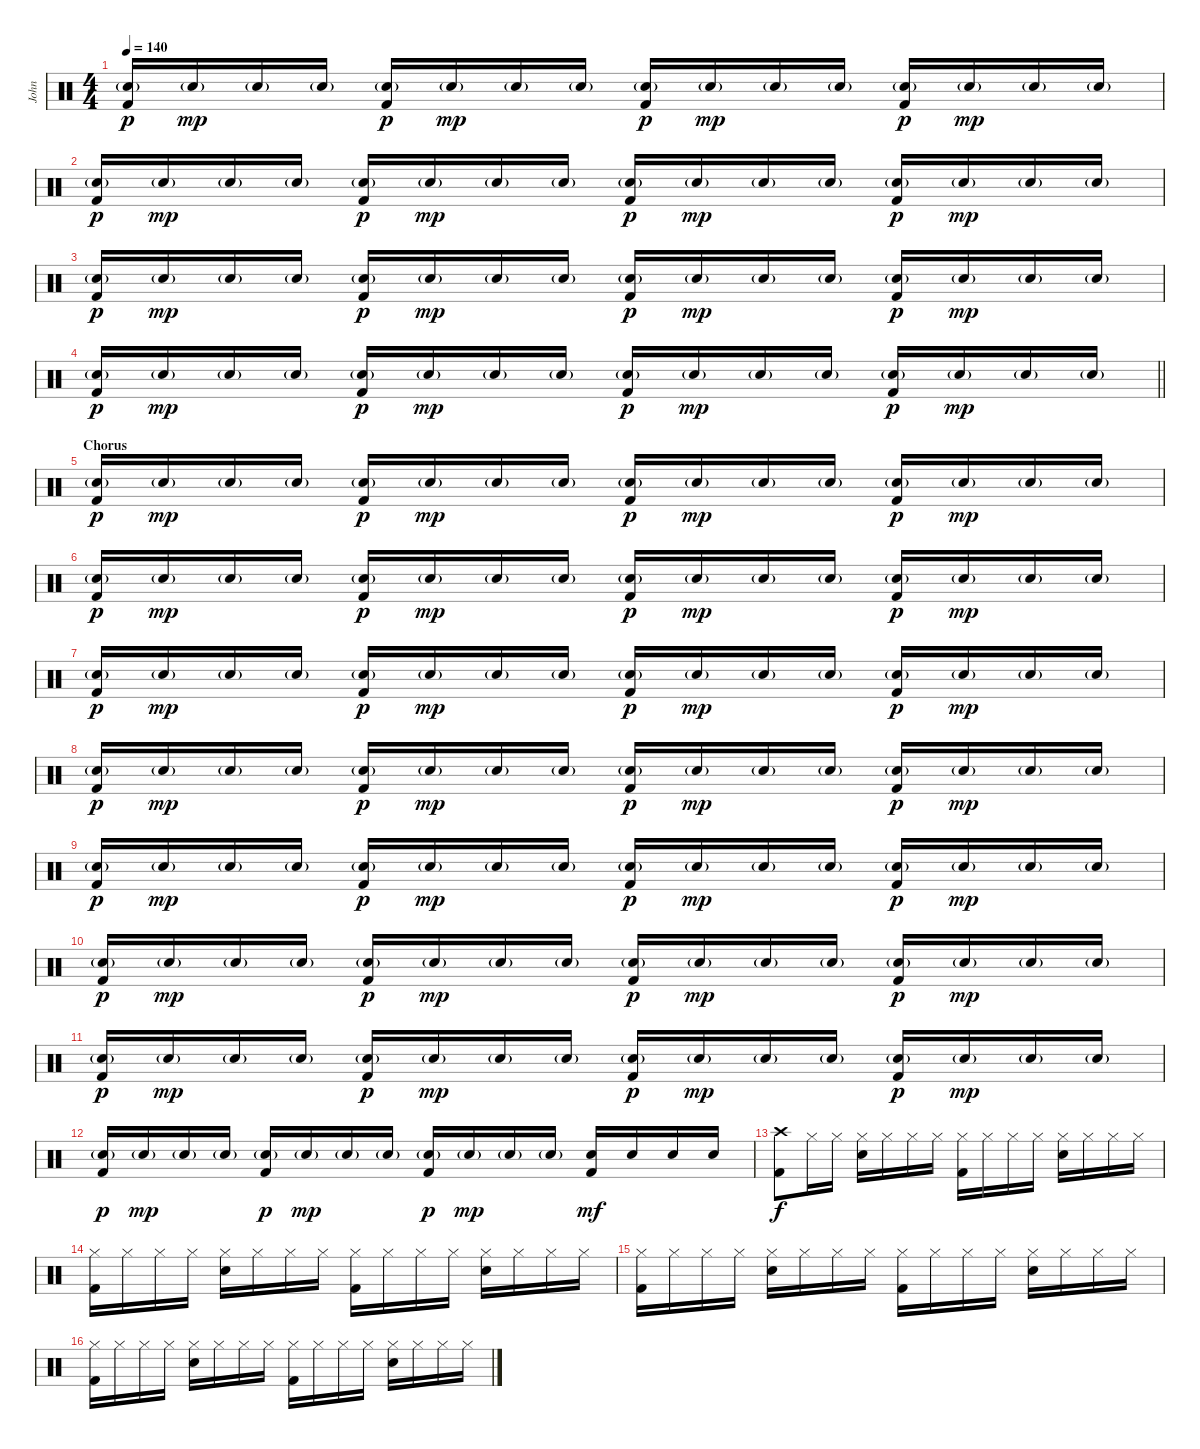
\track ("John" "John") {instrument percussion}
\staff {score}
\articulation defaults
\ts (4 4)
\tempo 140
\clef neutral
\ks c
("Electric Snare (hit)"{g} "Kick (hit) 2").16{dy p} "Electric Snare (hit)"{g}.16{dy mp} "Electric Snare (hit)"{g}.16 "Electric Snare (hit)"{g}.16 ("Electric Snare (hit)"{g} "Kick (hit) 2").16{dy p} "Electric Snare (hit)"{g}.16{dy mp} "Electric Snare (hit)"{g}.16 "Electric Snare (hit)"{g}.16 ("Electric Snare (hit)"{g} "Kick (hit) 2").16{dy p} "Electric Snare (hit)"{g}.16{dy mp} "Electric Snare (hit)"{g}.16 "Electric Snare (hit)"{g}.16 ("Electric Snare (hit)"{g} "Kick (hit) 2").16{dy p} "Electric Snare (hit)"{g}.16{dy mp} "Electric Snare (hit)"{g}.16 "Electric Snare (hit)"{g}.16 |
("Electric Snare (hit)"{g} "Kick (hit) 2").16{dy p} "Electric Snare (hit)"{g}.16{dy mp} "Electric Snare (hit)"{g}.16 "Electric Snare (hit)"{g}.16 ("Electric Snare (hit)"{g} "Kick (hit) 2").16{dy p} "Electric Snare (hit)"{g}.16{dy mp} "Electric Snare (hit)"{g}.16 "Electric Snare (hit)"{g}.16 ("Electric Snare (hit)"{g} "Kick (hit) 2").16{dy p} "Electric Snare (hit)"{g}.16{dy mp} "Electric Snare (hit)"{g}.16 "Electric Snare (hit)"{g}.16 ("Electric Snare (hit)"{g} "Kick (hit) 2").16{dy p} "Electric Snare (hit)"{g}.16{dy mp} "Electric Snare (hit)"{g}.16 "Electric Snare (hit)"{g}.16 |
("Electric Snare (hit)"{g} "Kick (hit) 2").16{dy p} "Electric Snare (hit)"{g}.16{dy mp} "Electric Snare (hit)"{g}.16 "Electric Snare (hit)"{g}.16 ("Electric Snare (hit)"{g} "Kick (hit) 2").16{dy p} "Electric Snare (hit)"{g}.16{dy mp} "Electric Snare (hit)"{g}.16 "Electric Snare (hit)"{g}.16 ("Electric Snare (hit)"{g} "Kick (hit) 2").16{dy p} "Electric Snare (hit)"{g}.16{dy mp} "Electric Snare (hit)"{g}.16 "Electric Snare (hit)"{g}.16 ("Electric Snare (hit)"{g} "Kick (hit) 2").16{dy p} "Electric Snare (hit)"{g}.16{dy mp} "Electric Snare (hit)"{g}.16 "Electric Snare (hit)"{g}.16 |
\barLineRight lightlight
("Electric Snare (hit)"{g} "Kick (hit) 2").16{dy p} "Electric Snare (hit)"{g}.16{dy mp} "Electric Snare (hit)"{g}.16 "Electric Snare (hit)"{g}.16 ("Electric Snare (hit)"{g} "Kick (hit) 2").16{dy p} "Electric Snare (hit)"{g}.16{dy mp} "Electric Snare (hit)"{g}.16 "Electric Snare (hit)"{g}.16 ("Electric Snare (hit)"{g} "Kick (hit) 2").16{dy p} "Electric Snare (hit)"{g}.16{dy mp} "Electric Snare (hit)"{g}.16 "Electric Snare (hit)"{g}.16 ("Electric Snare (hit)"{g} "Kick (hit) 2").16{dy p} "Electric Snare (hit)"{g}.16{dy mp} "Electric Snare (hit)"{g}.16 "Electric Snare (hit)"{g}.16 |
\section ("" "Chorus")
("Electric Snare (hit)"{g} "Kick (hit) 2").16{dy p} "Electric Snare (hit)"{g}.16{dy mp} "Electric Snare (hit)"{g}.16 "Electric Snare (hit)"{g}.16 ("Electric Snare (hit)"{g} "Kick (hit) 2").16{dy p} "Electric Snare (hit)"{g}.16{dy mp} "Electric Snare (hit)"{g}.16 "Electric Snare (hit)"{g}.16 ("Electric Snare (hit)"{g} "Kick (hit) 2").16{dy p} "Electric Snare (hit)"{g}.16{dy mp} "Electric Snare (hit)"{g}.16 "Electric Snare (hit)"{g}.16 ("Electric Snare (hit)"{g} "Kick (hit) 2").16{dy p} "Electric Snare (hit)"{g}.16{dy mp} "Electric Snare (hit)"{g}.16 "Electric Snare (hit)"{g}.16 |
("Electric Snare (hit)"{g} "Kick (hit) 2").16{dy p} "Electric Snare (hit)"{g}.16{dy mp} "Electric Snare (hit)"{g}.16 "Electric Snare (hit)"{g}.16 ("Electric Snare (hit)"{g} "Kick (hit) 2").16{dy p} "Electric Snare (hit)"{g}.16{dy mp} "Electric Snare (hit)"{g}.16 "Electric Snare (hit)"{g}.16 ("Electric Snare (hit)"{g} "Kick (hit) 2").16{dy p} "Electric Snare (hit)"{g}.16{dy mp} "Electric Snare (hit)"{g}.16 "Electric Snare (hit)"{g}.16 ("Electric Snare (hit)"{g} "Kick (hit) 2").16{dy p} "Electric Snare (hit)"{g}.16{dy mp} "Electric Snare (hit)"{g}.16 "Electric Snare (hit)"{g}.16 |
("Electric Snare (hit)"{g} "Kick (hit) 2").16{dy p} "Electric Snare (hit)"{g}.16{dy mp} "Electric Snare (hit)"{g}.16 "Electric Snare (hit)"{g}.16 ("Electric Snare (hit)"{g} "Kick (hit) 2").16{dy p} "Electric Snare (hit)"{g}.16{dy mp} "Electric Snare (hit)"{g}.16 "Electric Snare (hit)"{g}.16 ("Electric Snare (hit)"{g} "Kick (hit) 2").16{dy p} "Electric Snare (hit)"{g}.16{dy mp} "Electric Snare (hit)"{g}.16 "Electric Snare (hit)"{g}.16 ("Electric Snare (hit)"{g} "Kick (hit) 2").16{dy p} "Electric Snare (hit)"{g}.16{dy mp} "Electric Snare (hit)"{g}.16 "Electric Snare (hit)"{g}.16 |
("Electric Snare (hit)"{g} "Kick (hit) 2").16{dy p} "Electric Snare (hit)"{g}.16{dy mp} "Electric Snare (hit)"{g}.16 "Electric Snare (hit)"{g}.16 ("Electric Snare (hit)"{g} "Kick (hit) 2").16{dy p} "Electric Snare (hit)"{g}.16{dy mp} "Electric Snare (hit)"{g}.16 "Electric Snare (hit)"{g}.16 ("Electric Snare (hit)"{g} "Kick (hit) 2").16{dy p} "Electric Snare (hit)"{g}.16{dy mp} "Electric Snare (hit)"{g}.16 "Electric Snare (hit)"{g}.16 ("Electric Snare (hit)"{g} "Kick (hit) 2").16{dy p} "Electric Snare (hit)"{g}.16{dy mp} "Electric Snare (hit)"{g}.16 "Electric Snare (hit)"{g}.16 |
("Electric Snare (hit)"{g} "Kick (hit) 2").16{dy p} "Electric Snare (hit)"{g}.16{dy mp} "Electric Snare (hit)"{g}.16 "Electric Snare (hit)"{g}.16 ("Electric Snare (hit)"{g} "Kick (hit) 2").16{dy p} "Electric Snare (hit)"{g}.16{dy mp} "Electric Snare (hit)"{g}.16 "Electric Snare (hit)"{g}.16 ("Electric Snare (hit)"{g} "Kick (hit) 2").16{dy p} "Electric Snare (hit)"{g}.16{dy mp} "Electric Snare (hit)"{g}.16 "Electric Snare (hit)"{g}.16 ("Electric Snare (hit)"{g} "Kick (hit) 2").16{dy p} "Electric Snare (hit)"{g}.16{dy mp} "Electric Snare (hit)"{g}.16 "Electric Snare (hit)"{g}.16 |
("Electric Snare (hit)"{g} "Kick (hit) 2").16{dy p} "Electric Snare (hit)"{g}.16{dy mp} "Electric Snare (hit)"{g}.16 "Electric Snare (hit)"{g}.16 ("Electric Snare (hit)"{g} "Kick (hit) 2").16{dy p} "Electric Snare (hit)"{g}.16{dy mp} "Electric Snare (hit)"{g}.16 "Electric Snare (hit)"{g}.16 ("Electric Snare (hit)"{g} "Kick (hit) 2").16{dy p} "Electric Snare (hit)"{g}.16{dy mp} "Electric Snare (hit)"{g}.16 "Electric Snare (hit)"{g}.16 ("Electric Snare (hit)"{g} "Kick (hit) 2").16{dy p} "Electric Snare (hit)"{g}.16{dy mp} "Electric Snare (hit)"{g}.16 "Electric Snare (hit)"{g}.16 |
("Electric Snare (hit)"{g} "Kick (hit) 2").16{dy p} "Electric Snare (hit)"{g}.16{dy mp} "Electric Snare (hit)"{g}.16 "Electric Snare (hit)"{g}.16 ("Electric Snare (hit)"{g} "Kick (hit) 2").16{dy p} "Electric Snare (hit)"{g}.16{dy mp} "Electric Snare (hit)"{g}.16 "Electric Snare (hit)"{g}.16 ("Electric Snare (hit)"{g} "Kick (hit) 2").16{dy p} "Electric Snare (hit)"{g}.16{dy mp} "Electric Snare (hit)"{g}.16 "Electric Snare (hit)"{g}.16 ("Electric Snare (hit)"{g} "Kick (hit) 2").16{dy p} "Electric Snare (hit)"{g}.16{dy mp} "Electric Snare (hit)"{g}.16 "Electric Snare (hit)"{g}.16 |
("Electric Snare (hit)"{g} "Kick (hit) 2").16{dy p} "Electric Snare (hit)"{g}.16{dy mp} "Electric Snare (hit)"{g}.16 "Electric Snare (hit)"{g}.16 ("Electric Snare (hit)"{g} "Kick (hit) 2").16{dy p} "Electric Snare (hit)"{g}.16{dy mp} "Electric Snare (hit)"{g}.16 "Electric Snare (hit)"{g}.16 ("Electric Snare (hit)"{g} "Kick (hit) 2").16{dy p} "Electric Snare (hit)"{g}.16{dy mp} "Electric Snare (hit)"{g}.16 "Electric Snare (hit)"{g}.16 ("Electric Snare (hit)" "Kick (hit) 2").16{dy mf} "Electric Snare (hit)".16 "Electric Snare (hit)".16 "Electric Snare (hit)".16 |
("Crash high (hit)" "Kick (hit) 2").8{dy f} "Hi-Hat (closed)".16 "Hi-Hat (closed)".16 ("Hi-Hat (closed)" "Electric Snare (hit)").16 "Hi-Hat (closed)".16 "Hi-Hat (closed)".16 "Hi-Hat (closed)".16 ("Hi-Hat (closed)" "Kick (hit) 2").16 "Hi-Hat (closed)".16 "Hi-Hat (closed)".16 "Hi-Hat (closed)".16 ("Hi-Hat (closed)" "Electric Snare (hit)").16 "Hi-Hat (closed)".16 "Hi-Hat (closed)".16 "Hi-Hat (closed)".16 |
("Hi-Hat (closed)" "Kick (hit) 2").16 "Hi-Hat (closed)".16 "Hi-Hat (closed)".16 "Hi-Hat (closed)".16 ("Hi-Hat (closed)" "Electric Snare (hit)").16 "Hi-Hat (closed)".16 "Hi-Hat (closed)".16 "Hi-Hat (closed)".16 ("Hi-Hat (closed)" "Kick (hit) 2").16 "Hi-Hat (closed)".16 "Hi-Hat (closed)".16 "Hi-Hat (closed)".16 ("Hi-Hat (closed)" "Electric Snare (hit)").16 "Hi-Hat (closed)".16 "Hi-Hat (closed)".16 "Hi-Hat (closed)".16 |
("Hi-Hat (closed)" "Kick (hit) 2").16 "Hi-Hat (closed)".16 "Hi-Hat (closed)".16 "Hi-Hat (closed)".16 ("Hi-Hat (closed)" "Electric Snare (hit)").16 "Hi-Hat (closed)".16 "Hi-Hat (closed)".16 "Hi-Hat (closed)".16 ("Hi-Hat (closed)" "Kick (hit) 2").16 "Hi-Hat (closed)".16 "Hi-Hat (closed)".16 "Hi-Hat (closed)".16 ("Hi-Hat (closed)" "Electric Snare (hit)").16 "Hi-Hat (closed)".16 "Hi-Hat (closed)".16 "Hi-Hat (closed)".16 |
("Hi-Hat (closed)" "Kick (hit) 2").16 "Hi-Hat (closed)".16 "Hi-Hat (closed)".16 "Hi-Hat (closed)".16 ("Hi-Hat (closed)" "Electric Snare (hit)").16 "Hi-Hat (closed)".16 "Hi-Hat (closed)".16 "Hi-Hat (closed)".16 ("Hi-Hat (closed)" "Kick (hit) 2").16 "Hi-Hat (closed)".16 "Hi-Hat (closed)".16 "Hi-Hat (closed)".16 ("Hi-Hat (closed)" "Electric Snare (hit)").16 "Hi-Hat (closed)".16 "Hi-Hat (closed)".16 "Hi-Hat (closed)".16
